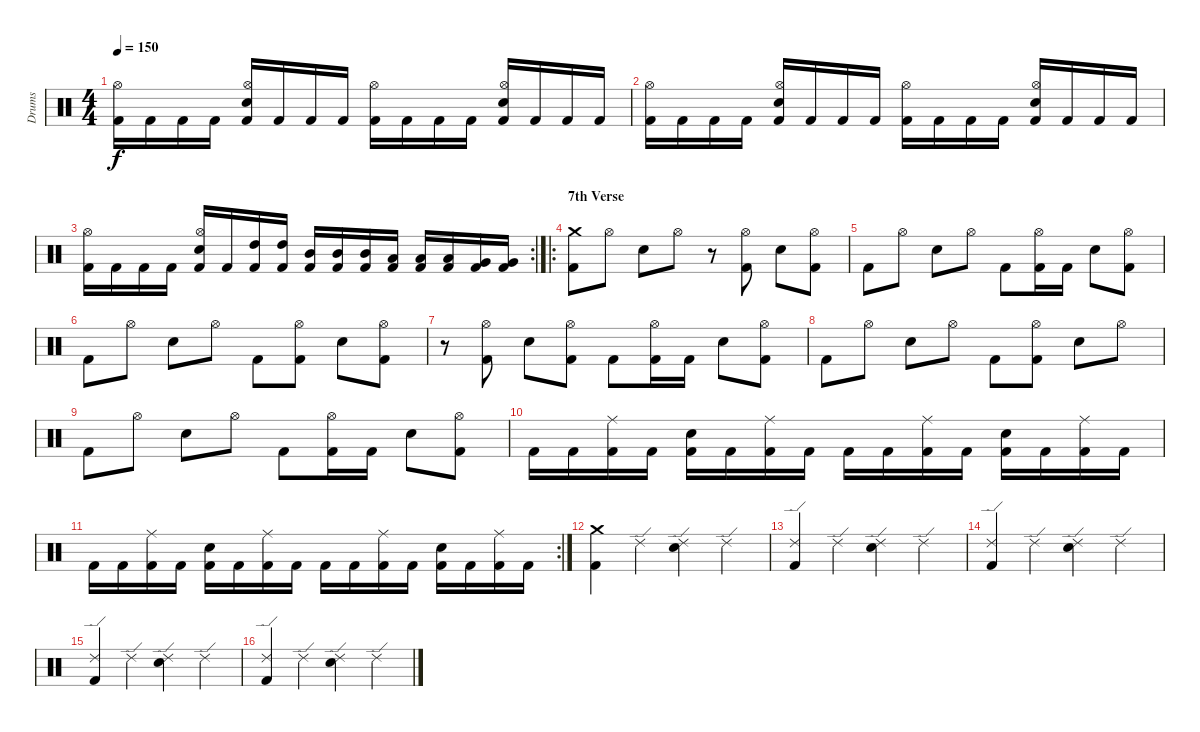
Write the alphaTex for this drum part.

\track ("Drums" "Drums") {instrument percussion}
\staff {score}
\articulation defaults
\ts (4 4)
\tempo 150
\clef neutral
\ks c
("Kick (hit) 2" "Hi-Hat (open)").16{dy f} "Kick (hit) 2".16 "Kick (hit) 2".16 "Kick (hit) 2".16 ("Kick (hit) 2" "Electric Snare (hit)" "Hi-Hat (open)").16 "Kick (hit) 2".16 "Kick (hit) 2".16 "Kick (hit) 2".16 ("Kick (hit) 2" "Hi-Hat (open)").16 "Kick (hit) 2".16 "Kick (hit) 2".16 "Kick (hit) 2".16 ("Kick (hit) 2" "Electric Snare (hit)" "Hi-Hat (open)").16 "Kick (hit) 2".16 "Kick (hit) 2".16 "Kick (hit) 2".16 |
("Kick (hit) 2" "Hi-Hat (open)").16 "Kick (hit) 2".16 "Kick (hit) 2".16 "Kick (hit) 2".16 ("Kick (hit) 2" "Electric Snare (hit)" "Hi-Hat (open)").16 "Kick (hit) 2".16 "Kick (hit) 2".16 "Kick (hit) 2".16 ("Kick (hit) 2" "Hi-Hat (open)").16 "Kick (hit) 2".16 "Kick (hit) 2".16 "Kick (hit) 2".16 ("Kick (hit) 2" "Electric Snare (hit)" "Hi-Hat (open)").16 "Kick (hit) 2".16 "Kick (hit) 2".16 "Kick (hit) 2".16 |
\rc 2
("Kick (hit) 2" "Hi-Hat (open)").16 "Kick (hit) 2".16 "Kick (hit) 2".16 "Kick (hit) 2".16 ("Kick (hit) 2" "Electric Snare (hit)" "Hi-Hat (open)").16 "Kick (hit) 2".16 ("Kick (hit) 2" "High Tom (hit)").16 ("Kick (hit) 2" "High Tom (hit)").16 ("Kick (hit) 2" "Mid Tom (hit)").16 ("Kick (hit) 2" "Mid Tom (hit)").16 ("Kick (hit) 2" "Mid Tom (hit)").16 ("Kick (hit) 2" "Low Tom (hit)").16 ("Kick (hit) 2" "Low Tom (hit)").16 ("Kick (hit) 2" "Low Tom (hit)").16 ("Kick (hit) 2" "Very Low Tom (hit)").16 ("Kick (hit) 2" "Very Low Tom (hit)").16 |
\ro
\section ("" "7th Verse")
("Kick (hit) 2" "Crash medium (hit)").8 "Hi-Hat (open)".8 "Electric Snare (hit)".8 "Hi-Hat (open)".8 r.8 ("Kick (hit) 2" "Hi-Hat (open)").8 "Electric Snare (hit)".8 ("Kick (hit) 2" "Hi-Hat (open)").8 |
"Kick (hit) 2".8 "Hi-Hat (open)".8 "Electric Snare (hit)".8 "Hi-Hat (open)".8 "Kick (hit) 2".8 ("Kick (hit) 2" "Hi-Hat (open)").16 "Kick (hit) 2".16 "Electric Snare (hit)".8 ("Kick (hit) 2" "Hi-Hat (open)").8 |
"Kick (hit) 2".8 "Hi-Hat (open)".8 "Electric Snare (hit)".8 "Hi-Hat (open)".8 "Kick (hit) 2".8 ("Kick (hit) 2" "Hi-Hat (open)").8 "Electric Snare (hit)".8 ("Kick (hit) 2" "Hi-Hat (open)").8 |
r.8 ("Kick (hit) 2" "Hi-Hat (open)").8 "Electric Snare (hit)".8 ("Kick (hit) 2" "Hi-Hat (open)").8 "Kick (hit) 2".8 ("Kick (hit) 2" "Hi-Hat (open)").16 "Kick (hit) 2".16 "Electric Snare (hit)".8 ("Kick (hit) 2" "Hi-Hat (open)").8 |
"Kick (hit) 2".8 "Hi-Hat (open)".8 "Electric Snare (hit)".8 "Hi-Hat (open)".8 "Kick (hit) 2".8 ("Kick (hit) 2" "Hi-Hat (open)").8 "Electric Snare (hit)".8 "Hi-Hat (open)".8 |
"Kick (hit) 2".8 "Hi-Hat (open)".8 "Electric Snare (hit)".8 "Hi-Hat (open)".8 "Kick (hit) 2".8 ("Kick (hit) 2" "Hi-Hat (open)").16 "Kick (hit) 2".16 "Electric Snare (hit)".8 ("Kick (hit) 2" "Hi-Hat (open)").8 |
"Kick (hit) 2".16 "Kick (hit) 2".16 ("Kick (hit) 2" "Ride (middle)").16 "Kick (hit) 2".16 ("Kick (hit) 2" "Electric Snare (hit)").16 "Kick (hit) 2".16 ("Kick (hit) 2" "Ride (middle)").16 "Kick (hit) 2".16 "Kick (hit) 2".16 "Kick (hit) 2".16 ("Kick (hit) 2" "Ride (middle)").16 "Kick (hit) 2".16 ("Kick (hit) 2" "Electric Snare (hit)").16 "Kick (hit) 2".16 ("Kick (hit) 2" "Ride (middle)").16 "Kick (hit) 2".16 |
\rc 2 "Kick (hit) 2".16 "Kick (hit) 2".16
("Kick (hit) 2" "Ride (middle)").16 "Kick (hit) 2".16 ("Kick (hit) 2" "Electric Snare (hit)").16 "Kick (hit) 2".16 ("Kick (hit) 2" "Ride (middle)").16 "Kick (hit) 2".16 "Kick (hit) 2".16 "Kick (hit) 2".16 ("Kick (hit) 2" "Ride (middle)").16 "Kick (hit) 2".16 ("Kick (hit) 2" "Electric Snare (hit)").16 "Kick (hit) 2".16 ("Kick (hit) 2" "Ride (middle)").16 "Kick (hit) 2".16 |
("Kick (hit) 2" "Crash medium (hit)").4 "Ride (edge) 2".4 ("Electric Snare (hit)" "Ride (edge) 2").4 "Ride (edge) 2".4 |
("Kick (hit) 2" "Ride (edge) 2").4 "Ride (edge) 2".4 ("Electric Snare (hit)" "Ride (edge) 2").4 "Ride (edge) 2".4 |
("Kick (hit) 2" "Ride (edge) 2").4 "Ride (edge) 2".4 ("Electric Snare (hit)" "Ride (edge) 2").4 "Ride (edge) 2".4 |
("Kick (hit) 2" "Ride (edge) 2").4 "Ride (edge) 2".4 ("Electric Snare (hit)" "Ride (edge) 2").4 "Ride (edge) 2".4 |
("Kick (hit) 2" "Ride (edge) 2").4 "Ride (edge) 2".4 ("Electric Snare (hit)" "Ride (edge) 2").4 "Ride (edge) 2".4
